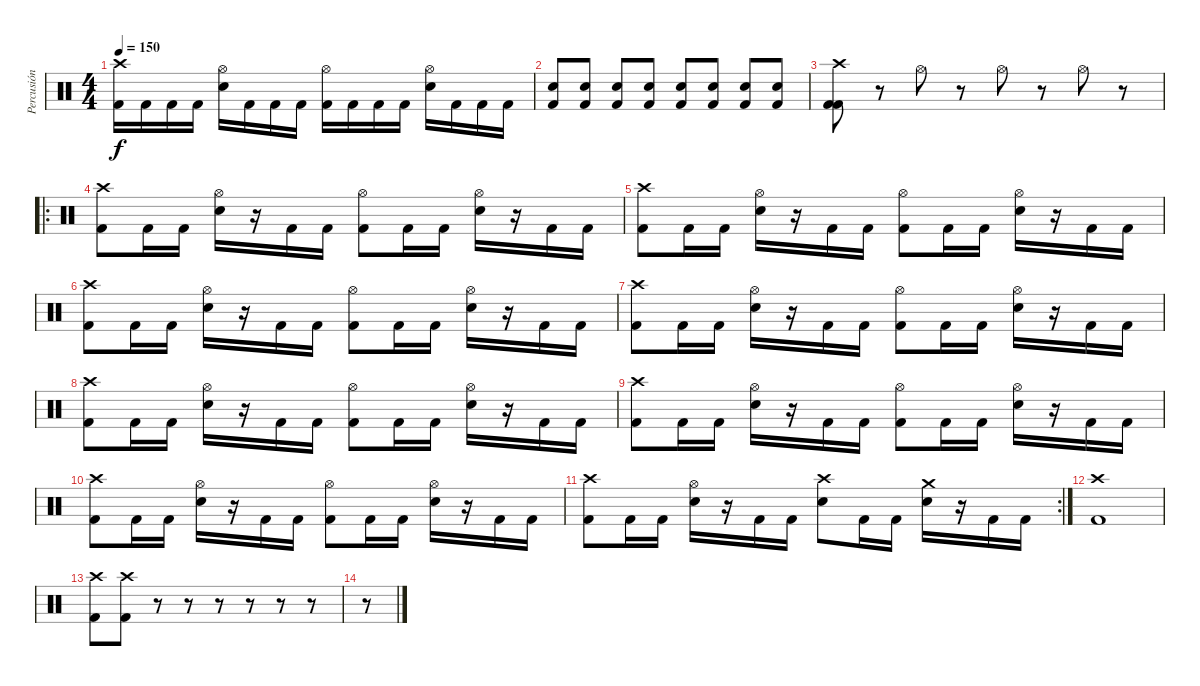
\track ("Percusión" "Percusión") {instrument percussion}
\staff {score}
\articulation defaults
\ts (4 4)
\tempo 150
\clef neutral
\ks c
("Crash high (hit)" "Kick (hit) 2").16{dy f} "Kick (hit) 2".16 "Kick (hit) 2".16 "Kick (hit) 2".16 ("Hi-Hat (open)" "Electric Snare (hit)").16 "Kick (hit) 2".16 "Kick (hit) 2".16 "Kick (hit) 2".16 ("Hi-Hat (open)" "Kick (hit) 2").16 "Kick (hit) 2".16 "Kick (hit) 2".16 "Kick (hit) 2".16 ("Hi-Hat (open)" "Electric Snare (hit)").16 "Kick (hit) 2".16 "Kick (hit) 2".16 "Kick (hit) 2".16 |
("Kick (hit) 2" "Electric Snare (hit)").8 ("Kick (hit) 2" "Electric Snare (hit)").8 ("Kick (hit) 2" "Electric Snare (hit)").8 ("Kick (hit) 2" "Electric Snare (hit)").8 ("Kick (hit) 2" "Electric Snare (hit)").8 ("Kick (hit) 2" "Electric Snare (hit)").8 ("Kick (hit) 2" "Electric Snare (hit)").8 ("Kick (hit) 2" "Electric Snare (hit)").8 |
("Crash high (hit)" "Kick (hit) 2" "Kick (hit) 2").8 r.8 "Hi-Hat (open)".8 r.8 "Hi-Hat (open)".8 r.8 "Hi-Hat (open)".8 r.8 |
\ro
("Crash high (hit)" "Kick (hit) 2").8 "Kick (hit) 2".16 "Kick (hit) 2".16 ("Hi-Hat (open)" "Electric Snare (hit)").16 r.16 "Kick (hit) 2".16 "Kick (hit) 2".16 ("Hi-Hat (open)" "Kick (hit) 2").8 "Kick (hit) 2".16 "Kick (hit) 2".16 ("Hi-Hat (open)" "Electric Snare (hit)").16 r.16 "Kick (hit) 2".16 "Kick (hit) 2".16 |
("Crash high (hit)" "Kick (hit) 2").8 "Kick (hit) 2".16 "Kick (hit) 2".16 ("Hi-Hat (open)" "Electric Snare (hit)").16 r.16 "Kick (hit) 2".16 "Kick (hit) 2".16 ("Hi-Hat (open)" "Kick (hit) 2").8 "Kick (hit) 2".16 "Kick (hit) 2".16 ("Hi-Hat (open)" "Electric Snare (hit)").16 r.16 "Kick (hit) 2".16 "Kick (hit) 2".16 |
("Crash high (hit)" "Kick (hit) 2").8 "Kick (hit) 2".16 "Kick (hit) 2".16 ("Hi-Hat (open)" "Electric Snare (hit)").16 r.16 "Kick (hit) 2".16 "Kick (hit) 2".16 ("Hi-Hat (open)" "Kick (hit) 2").8 "Kick (hit) 2".16 "Kick (hit) 2".16 ("Hi-Hat (open)" "Electric Snare (hit)").16 r.16 "Kick (hit) 2".16 "Kick (hit) 2".16 |
("Crash high (hit)" "Kick (hit) 2").8 "Kick (hit) 2".16 "Kick (hit) 2".16 ("Hi-Hat (open)" "Electric Snare (hit)").16 r.16 "Kick (hit) 2".16 "Kick (hit) 2".16 ("Hi-Hat (open)" "Kick (hit) 2").8 "Kick (hit) 2".16 "Kick (hit) 2".16 ("Hi-Hat (open)" "Electric Snare (hit)").16 r.16 "Kick (hit) 2".16 "Kick (hit) 2".16 |
("Crash high (hit)" "Kick (hit) 2").8 "Kick (hit) 2".16 "Kick (hit) 2".16 ("Hi-Hat (open)" "Electric Snare (hit)").16 r.16 "Kick (hit) 2".16 "Kick (hit) 2".16 ("Hi-Hat (open)" "Kick (hit) 2").8 "Kick (hit) 2".16 "Kick (hit) 2".16 ("Hi-Hat (open)" "Electric Snare (hit)").16 r.16 "Kick (hit) 2".16 "Kick (hit) 2".16 |
("Crash high (hit)" "Kick (hit) 2").8 "Kick (hit) 2".16 "Kick (hit) 2".16 ("Hi-Hat (open)" "Electric Snare (hit)").16 r.16 "Kick (hit) 2".16 "Kick (hit) 2".16 ("Hi-Hat (open)" "Kick (hit) 2").8 "Kick (hit) 2".16 "Kick (hit) 2".16 ("Hi-Hat (open)" "Electric Snare (hit)").16 r.16 "Kick (hit) 2".16 "Kick (hit) 2".16 |
("Crash high (hit)" "Kick (hit) 2").8 "Kick (hit) 2".16 "Kick (hit) 2".16 ("Hi-Hat (open)" "Electric Snare (hit)").16 r.16 "Kick (hit) 2".16 "Kick (hit) 2".16 ("Hi-Hat (open)" "Kick (hit) 2").8 "Kick (hit) 2".16 "Kick (hit) 2".16 ("Hi-Hat (open)" "Electric Snare (hit)").16 r.16 "Kick (hit) 2".16 "Kick (hit) 2".16 |
\rc 2
("Crash high (hit)" "Kick (hit) 2").8 "Kick (hit) 2".16 "Kick (hit) 2".16 ("Hi-Hat (open)" "Electric Snare (hit)").16 r.16 "Kick (hit) 2".16 "Kick (hit) 2".16 ("Crash high (hit)" "Electric Snare (hit)").8 "Kick (hit) 2".16 "Kick (hit) 2".16 ("Crash medium (hit)" "Electric Snare (hit)").16 r.16 "Kick (hit) 2".16 "Kick (hit) 2".16 |
("Crash high (hit)" "Kick (hit) 2").1 |
("Crash high (hit)" "Kick (hit) 2").8 ("Crash high (hit)" "Kick (hit) 2").8 r.8 r.8 r.8 r.8 r.8 r.8 |
r.8
